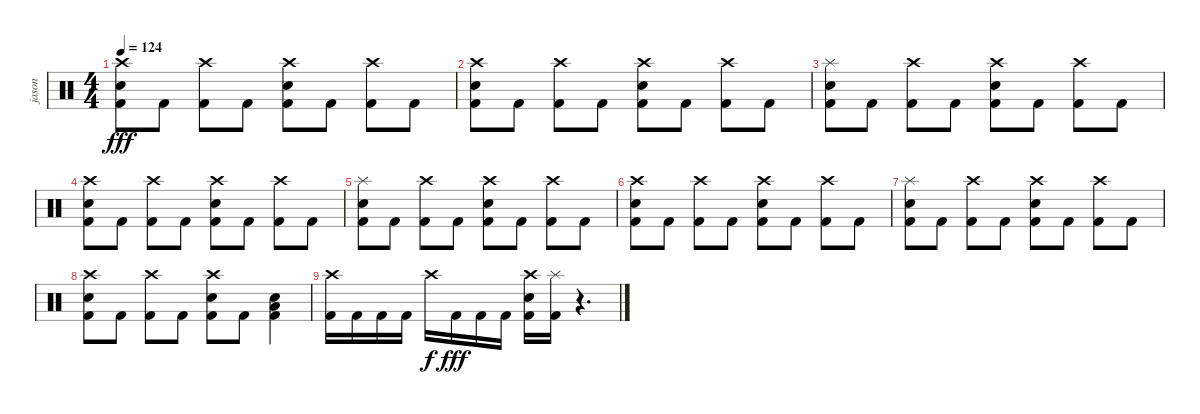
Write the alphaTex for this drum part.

\track ("jason" "jason") {solo instrument percussion}
\staff {score}
\articulation defaults
\ts (4 4)
\tempo 124
\clef neutral
\ks c
("Crash high (hit)" "Snare (hit) 2" "Kick (hit) 2").8{dy fff} "Kick (hit) 2".8 ("Crash high (hit)" "Kick (hit) 2").8 "Kick (hit) 2".8 ("Crash high (hit)" "Snare (hit) 2" "Kick (hit) 2").8 "Kick (hit) 2".8 ("Crash high (hit)" "Kick (hit) 2").8 "Kick (hit) 2".8 |
("Crash high (hit)" "Snare (hit) 2" "Kick (hit) 2").8 "Kick (hit) 2".8 ("Crash high (hit)" "Kick (hit) 2").8 "Kick (hit) 2".8 ("Crash high (hit)" "Snare (hit) 2" "Kick (hit) 2").8 "Kick (hit) 2".8 ("Crash high (hit)" "Kick (hit) 2").8 "Kick (hit) 2".8 |
("Splash (hit)" "Snare (hit) 2" "Kick (hit) 2").8 "Kick (hit) 2".8 ("Crash high (hit)" "Kick (hit) 2").8 "Kick (hit) 2".8 ("Crash high (hit)" "Snare (hit) 2" "Kick (hit) 2").8 "Kick (hit) 2".8 ("Crash high (hit)" "Kick (hit) 2").8 "Kick (hit) 2".8 |
("Crash high (hit)" "Snare (hit) 2" "Kick (hit) 2").8 "Kick (hit) 2".8 ("Crash high (hit)" "Kick (hit) 2").8 "Kick (hit) 2".8 ("Crash high (hit)" "Snare (hit) 2" "Kick (hit) 2").8 "Kick (hit) 2".8 ("Crash high (hit)" "Kick (hit) 2").8 "Kick (hit) 2".8 |
("Splash (hit)" "Snare (hit) 2" "Kick (hit) 2").8 "Kick (hit) 2".8 ("Crash high (hit)" "Kick (hit) 2").8 "Kick (hit) 2".8 ("Crash high (hit)" "Snare (hit) 2" "Kick (hit) 2").8 "Kick (hit) 2".8 ("Crash high (hit)" "Kick (hit) 2").8 "Kick (hit) 2".8 |
("Crash high (hit)" "Snare (hit) 2" "Kick (hit) 2").8 "Kick (hit) 2".8 ("Crash high (hit)" "Kick (hit) 2").8 "Kick (hit) 2".8 ("Crash high (hit)" "Snare (hit) 2" "Kick (hit) 2").8 "Kick (hit) 2".8 ("Crash high (hit)" "Kick (hit) 2").8 "Kick (hit) 2".8 |
("Splash (hit)" "Snare (hit) 2" "Kick (hit) 2").8 "Kick (hit) 2".8 ("Crash high (hit)" "Kick (hit) 2").8 "Kick (hit) 2".8 ("Crash high (hit)" "Snare (hit) 2" "Kick (hit) 2").8 "Kick (hit) 2".8 ("Crash high (hit)" "Kick (hit) 2").8 "Kick (hit) 2".8 |
("Crash high (hit)" "Snare (hit) 2" "Kick (hit) 2").8 "Kick (hit) 2".8 ("Crash high (hit)" "Kick (hit) 2").8 "Kick (hit) 2".8 ("Crash high (hit)" "Snare (hit) 2" "Kick (hit) 2").8 "Kick (hit) 2".8 ("Low Floor Tom (hit)" "Snare (hit) 2" "Kick (hit) 2").4 |
("Crash high (hit)" "Kick (hit) 2").16 "Kick (hit) 2".16 "Kick (hit) 2".16 "Kick (hit) 2".16 "Crash high (hit)".16{dy f} "Kick (hit) 2".16{dy fff} "Kick (hit) 2".16 "Kick (hit) 2".16 ("Crash high (hit)" "Snare (hit) 2" "Kick (hit) 2").16 ("Splash (hit)" "Kick (hit) 2").16 r.4{d}
